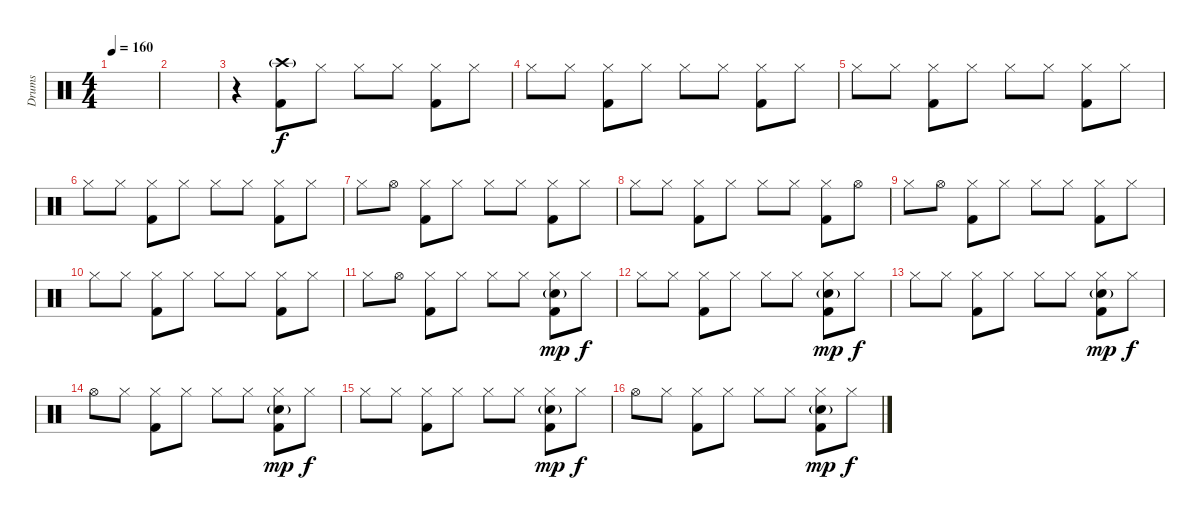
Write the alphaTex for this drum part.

\track ("Drums" "Drums") {instrument percussion}
\staff {score}
\articulation defaults
\ts (4 4)
\tempo 160
\clef neutral
\ks c
|
|
r.4 ("Crash high (hit)"{g} "Kick (hit) 2").8 "Hi-Hat (closed)".8{dy f} "Hi-Hat (closed)".8 "Hi-Hat (closed)".8 ("Kick (hit) 2" "Hi-Hat (closed)").8 "Hi-Hat (closed)".8 |
"Hi-Hat (closed)".8 "Hi-Hat (closed)".8 ("Kick (hit) 2" "Hi-Hat (closed)").8 "Hi-Hat (closed)".8 "Hi-Hat (closed)".8 "Hi-Hat (closed)".8 ("Kick (hit) 2" "Hi-Hat (closed)").8 "Hi-Hat (closed)".8 |
"Hi-Hat (closed)".8 "Hi-Hat (closed)".8 ("Kick (hit) 2" "Hi-Hat (closed)").8 "Hi-Hat (closed)".8 "Hi-Hat (closed)".8 "Hi-Hat (closed)".8 ("Kick (hit) 2" "Hi-Hat (closed)").8 "Hi-Hat (closed)".8 |
"Hi-Hat (closed)".8 "Hi-Hat (closed)".8 ("Kick (hit) 2" "Hi-Hat (closed)").8 "Hi-Hat (closed)".8 "Hi-Hat (closed)".8 "Hi-Hat (closed)".8 ("Kick (hit) 2" "Hi-Hat (closed)").8 "Hi-Hat (closed)".8 |
"Hi-Hat (closed)".8 "Hi-Hat (open)".8 ("Kick (hit) 2" "Hi-Hat (closed)").8 "Hi-Hat (closed)".8 "Hi-Hat (closed)".8 "Hi-Hat (closed)".8 ("Kick (hit) 2" "Hi-Hat (closed)").8 "Hi-Hat (closed)".8 |
"Hi-Hat (closed)".8 "Hi-Hat (closed)".8 ("Kick (hit) 2" "Hi-Hat (closed)").8 "Hi-Hat (closed)".8 "Hi-Hat (closed)".8 "Hi-Hat (closed)".8 ("Kick (hit) 2" "Hi-Hat (closed)").8 "Hi-Hat (open)".8 |
"Hi-Hat (closed)".8 "Hi-Hat (open)".8 ("Kick (hit) 2" "Hi-Hat (closed)").8 "Hi-Hat (closed)".8 "Hi-Hat (closed)".8 "Hi-Hat (closed)".8 ("Kick (hit) 2" "Hi-Hat (closed)").8 "Hi-Hat (closed)".8 |
"Hi-Hat (closed)".8 "Hi-Hat (closed)".8 ("Kick (hit) 2" "Hi-Hat (closed)").8 "Hi-Hat (closed)".8 "Hi-Hat (closed)".8 "Hi-Hat (closed)".8 ("Kick (hit) 2" "Hi-Hat (closed)").8 "Hi-Hat (closed)".8 |
"Hi-Hat (closed)".8 "Hi-Hat (open)".8 ("Kick (hit) 2" "Hi-Hat (closed)").8 "Hi-Hat (closed)".8 "Hi-Hat (closed)".8 "Hi-Hat (closed)".8 ("Snare (hit) 2"{g} "Kick (hit) 2" "Hi-Hat (closed)").8{dy mp} "Hi-Hat (closed)".8{dy f} |
"Hi-Hat (closed)".8 "Hi-Hat (closed)".8 ("Kick (hit) 2" "Hi-Hat (closed)").8 "Hi-Hat (closed)".8 "Hi-Hat (closed)".8 "Hi-Hat (closed)".8 ("Snare (hit) 2"{g} "Kick (hit) 2" "Hi-Hat (closed)").8{dy mp} "Hi-Hat (closed)".8{dy f} |
"Hi-Hat (closed)".8 "Hi-Hat (closed)".8 ("Kick (hit) 2" "Hi-Hat (closed)").8 "Hi-Hat (closed)".8 "Hi-Hat (closed)".8 "Hi-Hat (closed)".8 ("Snare (hit) 2"{g} "Kick (hit) 2" "Hi-Hat (closed)").8{dy mp} "Hi-Hat (closed)".8{dy f} |
"Hi-Hat (open)".8 "Hi-Hat (closed)".8 ("Kick (hit) 2" "Hi-Hat (closed)").8 "Hi-Hat (closed)".8 "Hi-Hat (closed)".8 "Hi-Hat (closed)".8 ("Snare (hit) 2"{g} "Kick (hit) 2" "Hi-Hat (closed)").8{dy mp} "Hi-Hat (closed)".8{dy f} |
"Hi-Hat (closed)".8 "Hi-Hat (closed)".8 ("Kick (hit) 2" "Hi-Hat (closed)").8 "Hi-Hat (closed)".8 "Hi-Hat (closed)".8 "Hi-Hat (closed)".8 ("Snare (hit) 2"{g} "Kick (hit) 2" "Hi-Hat (closed)").8{dy mp} "Hi-Hat (closed)".8{dy f} |
"Hi-Hat (open)".8 "Hi-Hat (closed)".8 ("Kick (hit) 2" "Hi-Hat (closed)").8 "Hi-Hat (closed)".8 "Hi-Hat (closed)".8 "Hi-Hat (closed)".8 ("Snare (hit) 2"{g} "Kick (hit) 2" "Hi-Hat (closed)").8{dy mp} "Hi-Hat (closed)".8{dy f}
